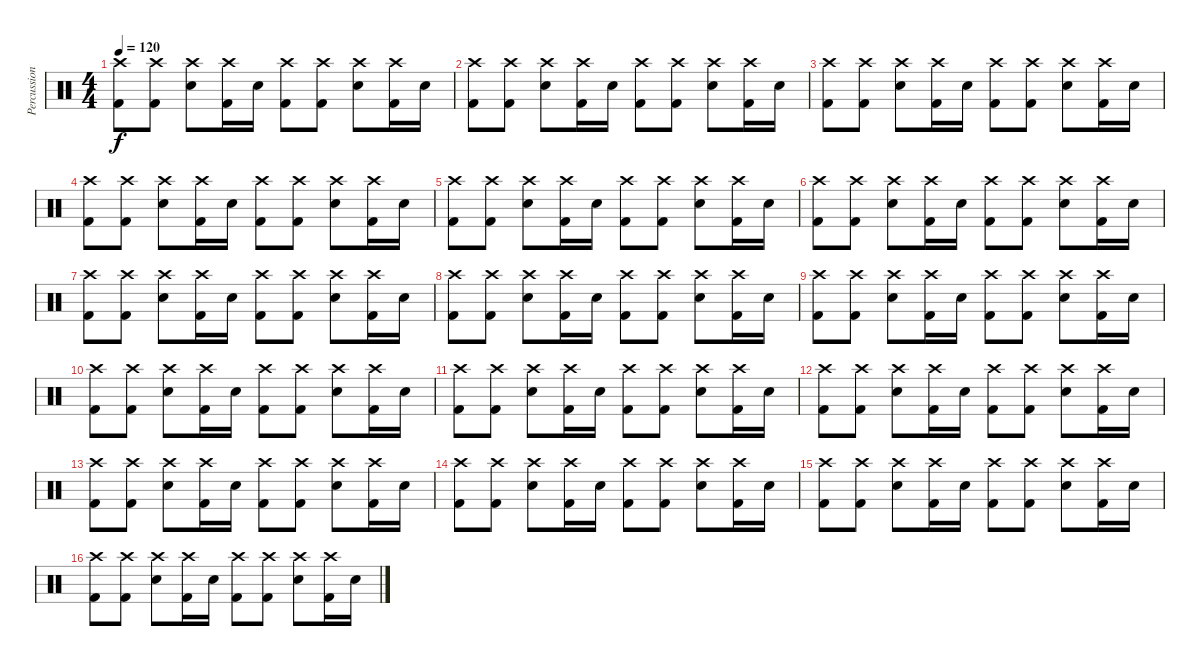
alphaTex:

\track ("Percussion" "Percussion") {instrument percussion}
\staff {score}
\articulation defaults
\ts (4 4)
\tempo 120
\clef neutral
\ks c
("Crash high (hit)" "Kick (hit) 2").8{dy f} ("Crash high (hit)" "Kick (hit) 2").8 ("Crash high (hit)" "Electric Snare (hit)").8 ("Crash high (hit)" "Kick (hit) 2").16 "Electric Snare (hit)".16 ("Crash high (hit)" "Kick (hit) 2").8 ("Crash high (hit)" "Kick (hit) 2").8 ("Crash high (hit)" "Electric Snare (hit)").8 ("Crash high (hit)" "Kick (hit) 2").16 "Electric Snare (hit)".16 |
("Crash high (hit)" "Kick (hit) 2").8 ("Crash high (hit)" "Kick (hit) 2").8 ("Crash high (hit)" "Electric Snare (hit)").8 ("Crash high (hit)" "Kick (hit) 2").16 "Electric Snare (hit)".16 ("Crash high (hit)" "Kick (hit) 2").8 ("Crash high (hit)" "Kick (hit) 2").8 ("Crash high (hit)" "Electric Snare (hit)").8 ("Crash high (hit)" "Kick (hit) 2").16 "Electric Snare (hit)".16 |
("Crash high (hit)" "Kick (hit) 2").8 ("Crash high (hit)" "Kick (hit) 2").8 ("Crash high (hit)" "Electric Snare (hit)").8 ("Crash high (hit)" "Kick (hit) 2").16 "Electric Snare (hit)".16 ("Crash high (hit)" "Kick (hit) 2").8 ("Crash high (hit)" "Kick (hit) 2").8 ("Crash high (hit)" "Electric Snare (hit)").8 ("Crash high (hit)" "Kick (hit) 2").16 "Electric Snare (hit)".16 |
("Crash high (hit)" "Kick (hit) 2").8 ("Crash high (hit)" "Kick (hit) 2").8 ("Crash high (hit)" "Electric Snare (hit)").8 ("Crash high (hit)" "Kick (hit) 2").16 "Electric Snare (hit)".16 ("Crash high (hit)" "Kick (hit) 2").8 ("Crash high (hit)" "Kick (hit) 2").8 ("Crash high (hit)" "Electric Snare (hit)").8 ("Crash high (hit)" "Kick (hit) 2").16 "Electric Snare (hit)".16 |
("Crash high (hit)" "Kick (hit) 2").8 ("Crash high (hit)" "Kick (hit) 2").8 ("Crash high (hit)" "Electric Snare (hit)").8 ("Crash high (hit)" "Kick (hit) 2").16 "Electric Snare (hit)".16 ("Crash high (hit)" "Kick (hit) 2").8 ("Crash high (hit)" "Kick (hit) 2").8 ("Crash high (hit)" "Electric Snare (hit)").8 ("Crash high (hit)" "Kick (hit) 2").16 "Electric Snare (hit)".16 |
("Crash high (hit)" "Kick (hit) 2").8 ("Crash high (hit)" "Kick (hit) 2").8 ("Crash high (hit)" "Electric Snare (hit)").8 ("Crash high (hit)" "Kick (hit) 2").16 "Electric Snare (hit)".16 ("Crash high (hit)" "Kick (hit) 2").8 ("Crash high (hit)" "Kick (hit) 2").8 ("Crash high (hit)" "Electric Snare (hit)").8 ("Crash high (hit)" "Kick (hit) 2").16 "Electric Snare (hit)".16 |
("Crash high (hit)" "Kick (hit) 2").8 ("Crash high (hit)" "Kick (hit) 2").8 ("Crash high (hit)" "Electric Snare (hit)").8 ("Crash high (hit)" "Kick (hit) 2").16 "Electric Snare (hit)".16 ("Crash high (hit)" "Kick (hit) 2").8 ("Crash high (hit)" "Kick (hit) 2").8 ("Crash high (hit)" "Electric Snare (hit)").8 ("Crash high (hit)" "Kick (hit) 2").16 "Electric Snare (hit)".16 |
("Crash high (hit)" "Kick (hit) 2").8 ("Crash high (hit)" "Kick (hit) 2").8 ("Crash high (hit)" "Electric Snare (hit)").8 ("Crash high (hit)" "Kick (hit) 2").16 "Electric Snare (hit)".16 ("Crash high (hit)" "Kick (hit) 2").8 ("Crash high (hit)" "Kick (hit) 2").8 ("Crash high (hit)" "Electric Snare (hit)").8 ("Crash high (hit)" "Kick (hit) 2").16 "Electric Snare (hit)".16 |
("Crash high (hit)" "Kick (hit) 2").8 ("Crash high (hit)" "Kick (hit) 2").8 ("Crash high (hit)" "Electric Snare (hit)").8 ("Crash high (hit)" "Kick (hit) 2").16 "Electric Snare (hit)".16 ("Crash high (hit)" "Kick (hit) 2").8 ("Crash high (hit)" "Kick (hit) 2").8 ("Crash high (hit)" "Electric Snare (hit)").8 ("Crash high (hit)" "Kick (hit) 2").16 "Electric Snare (hit)".16 |
("Crash high (hit)" "Kick (hit) 2").8 ("Crash high (hit)" "Kick (hit) 2").8 ("Crash high (hit)" "Electric Snare (hit)").8 ("Crash high (hit)" "Kick (hit) 2").16 "Electric Snare (hit)".16 ("Crash high (hit)" "Kick (hit) 2").8 ("Crash high (hit)" "Kick (hit) 2").8 ("Crash high (hit)" "Electric Snare (hit)").8 ("Crash high (hit)" "Kick (hit) 2").16 "Electric Snare (hit)".16 |
("Crash high (hit)" "Kick (hit) 2").8 ("Crash high (hit)" "Kick (hit) 2").8 ("Crash high (hit)" "Electric Snare (hit)").8 ("Crash high (hit)" "Kick (hit) 2").16 "Electric Snare (hit)".16 ("Crash high (hit)" "Kick (hit) 2").8 ("Crash high (hit)" "Kick (hit) 2").8 ("Crash high (hit)" "Electric Snare (hit)").8 ("Crash high (hit)" "Kick (hit) 2").16 "Electric Snare (hit)".16 |
("Crash high (hit)" "Kick (hit) 2").8 ("Crash high (hit)" "Kick (hit) 2").8 ("Crash high (hit)" "Electric Snare (hit)").8 ("Crash high (hit)" "Kick (hit) 2").16 "Electric Snare (hit)".16 ("Crash high (hit)" "Kick (hit) 2").8 ("Crash high (hit)" "Kick (hit) 2").8 ("Crash high (hit)" "Electric Snare (hit)").8 ("Crash high (hit)" "Kick (hit) 2").16 "Electric Snare (hit)".16 |
("Crash high (hit)" "Kick (hit) 2").8 ("Crash high (hit)" "Kick (hit) 2").8 ("Crash high (hit)" "Electric Snare (hit)").8 ("Crash high (hit)" "Kick (hit) 2").16 "Electric Snare (hit)".16 ("Crash high (hit)" "Kick (hit) 2").8 ("Crash high (hit)" "Kick (hit) 2").8 ("Crash high (hit)" "Electric Snare (hit)").8 ("Crash high (hit)" "Kick (hit) 2").16 "Electric Snare (hit)".16 |
("Crash high (hit)" "Kick (hit) 2").8 ("Crash high (hit)" "Kick (hit) 2").8 ("Crash high (hit)" "Electric Snare (hit)").8 ("Crash high (hit)" "Kick (hit) 2").16 "Electric Snare (hit)".16 ("Crash high (hit)" "Kick (hit) 2").8 ("Crash high (hit)" "Kick (hit) 2").8 ("Crash high (hit)" "Electric Snare (hit)").8 ("Crash high (hit)" "Kick (hit) 2").16 "Electric Snare (hit)".16 |
("Crash high (hit)" "Kick (hit) 2").8 ("Crash high (hit)" "Kick (hit) 2").8 ("Crash high (hit)" "Electric Snare (hit)").8 ("Crash high (hit)" "Kick (hit) 2").16 "Electric Snare (hit)".16 ("Crash high (hit)" "Kick (hit) 2").8 ("Crash high (hit)" "Kick (hit) 2").8 ("Crash high (hit)" "Electric Snare (hit)").8 ("Crash high (hit)" "Kick (hit) 2").16 "Electric Snare (hit)".16 |
("Crash high (hit)" "Kick (hit) 2").8 ("Crash high (hit)" "Kick (hit) 2").8 ("Crash high (hit)" "Electric Snare (hit)").8 ("Crash high (hit)" "Kick (hit) 2").16 "Electric Snare (hit)".16 ("Crash high (hit)" "Kick (hit) 2").8 ("Crash high (hit)" "Kick (hit) 2").8 ("Crash high (hit)" "Electric Snare (hit)").8 ("Crash high (hit)" "Kick (hit) 2").16 "Electric Snare (hit)".16
